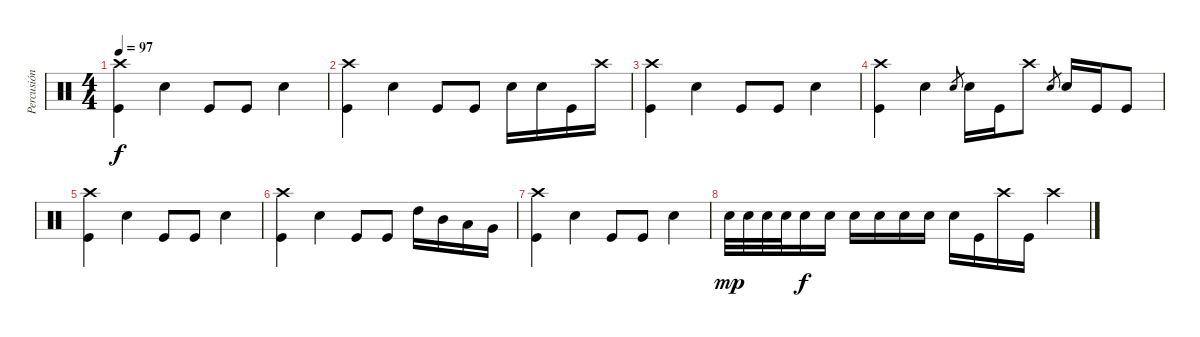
\track ("Percusión" "Percusión") {instrument percussion}
\staff {score}
\articulation defaults
\ts (4 4)
\tempo 97
\clef neutral
\ks c
("Kick (hit)" "Crash high (hit)").4{dy f} "Snare (hit) 2".4 "Kick (hit)".8 "Kick (hit)".8 "Snare (hit) 2".4 |
("Kick (hit)" "Crash high (hit)").4 "Snare (hit) 2".4 "Kick (hit)".8 "Kick (hit)".8 "Snare (hit) 2".16 "Snare (hit) 2".16 "Kick (hit)".16 "Crash high (hit)".16 |
("Kick (hit)" "Crash high (hit)").4 "Snare (hit) 2".4 "Kick (hit)".8 "Kick (hit)".8 "Snare (hit) 2".4 |
("Kick (hit)" "Crash high (hit)").4 "Snare (hit) 2".4 "Snare (hit) 2".8{gr} "Snare (hit) 2".16 "Kick (hit)".16 "Crash high (hit)".8 "Snare (hit) 2".8{gr} "Snare (hit) 2".16 "Kick (hit)".16 "Kick (hit)".8 |
("Kick (hit)" "Crash high (hit)").4 "Snare (hit) 2".4 "Kick (hit)".8 "Kick (hit)".8 "Snare (hit) 2".4 |
("Kick (hit)" "Crash high (hit)").4 "Snare (hit) 2".4 "Kick (hit)".8 "Kick (hit)".8 "High Tom (hit)".16 "Mid Tom (hit)".16 "Low Tom (hit)".16 "Very Low Tom (hit)".16 |
("Kick (hit)" "Crash high (hit)").4 "Snare (hit) 2".4 "Kick (hit)".8 "Kick (hit)".8 "Snare (hit) 2".4 |
"Snare (hit) 2".32{dy mp} "Snare (hit) 2".32 "Snare (hit) 2".32 "Snare (hit) 2".32 "Snare (hit) 2".16{dy f} "Snare (hit) 2".16 "Snare (hit) 2".16 "Snare (hit) 2".16 "Snare (hit) 2".16 "Snare (hit) 2".16 "Snare (hit) 2".16 "Kick (hit)".16 "Crash high (hit)".16 "Kick (hit)".16 "Crash high (hit)".4
